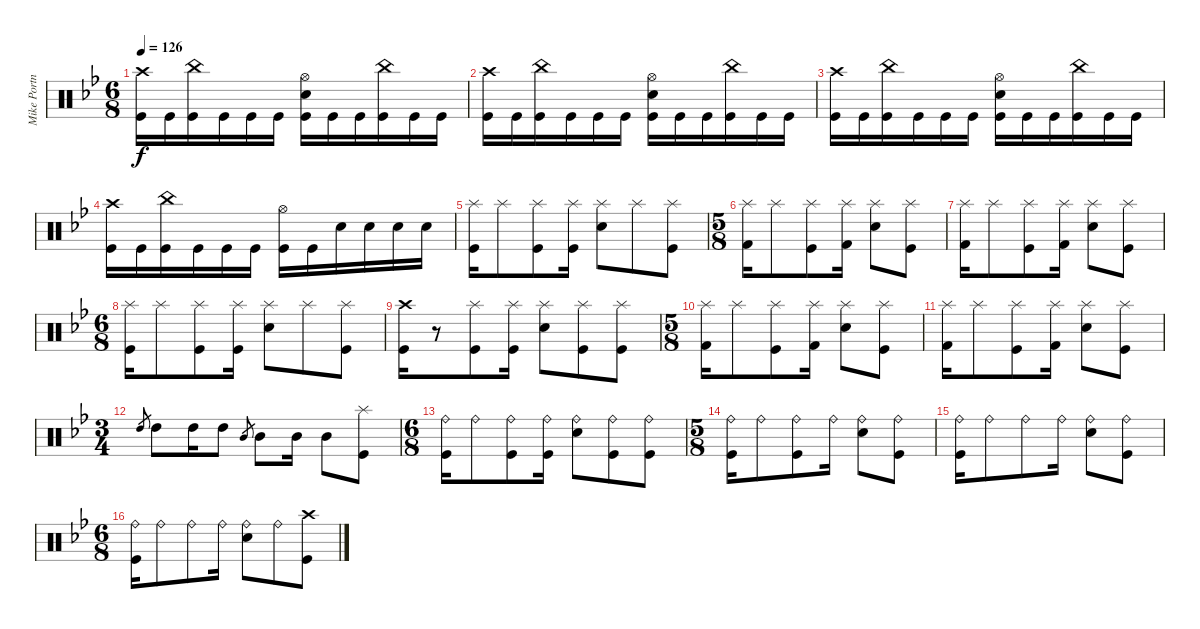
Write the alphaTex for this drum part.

\track ("Mike Portnoy - Drums" "Mike Portn") {instrument percussion}
\staff {score}
\articulation defaults
\ts (6 8)
\tempo 126
\clef neutral
\ks gminor
("Crash high (hit)" "Kick (hit)").16{dy f} "Kick (hit)".16 ("China (hit)" "Kick (hit)").16 "Kick (hit)".16 "Kick (hit)".16 "Kick (hit)".16 ("Hi-Hat (open)" "Snare (hit) 2" "Kick (hit)").16 "Kick (hit)".16 "Kick (hit)".16 ("China (hit)" "Kick (hit)").16 "Kick (hit)".16 "Kick (hit)".16 |
("Crash high (hit)" "Kick (hit)").16 "Kick (hit)".16 ("China (hit)" "Kick (hit)").16 "Kick (hit)".16 "Kick (hit)".16 "Kick (hit)".16 ("Hi-Hat (open)" "Snare (hit) 2" "Kick (hit)").16 "Kick (hit)".16 "Kick (hit)".16 ("China (hit)" "Kick (hit)").16 "Kick (hit)".16 "Kick (hit)".16 |
("Crash high (hit)" "Kick (hit)").16 "Kick (hit)".16 ("China (hit)" "Kick (hit)").16 "Kick (hit)".16 "Kick (hit)".16 "Kick (hit)".16 ("Hi-Hat (open)" "Snare (hit) 2" "Kick (hit)").16 "Kick (hit)".16 "Kick (hit)".16 ("China (hit)" "Kick (hit)").16 "Kick (hit)".16 "Kick (hit)".16 |
("Crash high (hit)" "Kick (hit)").16 "Kick (hit)".16 ("China (hit)" "Kick (hit)").16 "Kick (hit)".16 "Kick (hit)".16 "Kick (hit)".16 ("Hi-Hat (open)" "Kick (hit)").16 "Kick (hit)".16 "Snare (hit) 2".16 "Snare (hit) 2".16 "Snare (hit) 2".16 "Snare (hit) 2".16 |
("Splash (hit)" "Kick (hit)").16 "Splash (hit)".8 ("Splash (hit)" "Kick (hit)").8 ("Splash (hit)" "Kick (hit)").16 ("Splash (hit)" "Snare (hit) 2").8 "Splash (hit)".8 ("Splash (hit)" "Kick (hit)").8 |
\ts (5 8)
("Splash (hit)" "Kick (hit) 2").16 "Splash (hit)".8 ("Splash (hit)" "Kick (hit)").8 ("Splash (hit)" "Kick (hit) 2").16 ("Splash (hit)" "Snare (hit) 2").8 ("Splash (hit)" "Kick (hit)").8 |
("Splash (hit)" "Kick (hit) 2").16 "Splash (hit)".8 ("Splash (hit)" "Kick (hit)").8 ("Splash (hit)" "Kick (hit) 2").16 ("Splash (hit)" "Snare (hit) 2").8 ("Splash (hit)" "Kick (hit)").8 |
\ts (6 8)
("Splash (hit)" "Kick (hit)").16 "Splash (hit)".8 ("Splash (hit)" "Kick (hit)").8 ("Splash (hit)" "Kick (hit)").16 ("Splash (hit)" "Snare (hit) 2").8 "Splash (hit)".8 ("Splash (hit)" "Kick (hit)").8 |
("Crash high (hit)" "Kick (hit)").16 r.8 ("Splash (hit)" "Kick (hit)").8 ("Splash (hit)" "Kick (hit)").16 ("Splash (hit)" "Snare (hit) 2").8 ("Splash (hit)" "Kick (hit)").8 ("Splash (hit)" "Kick (hit)").8 |
\ts (5 8)
("Splash (hit)" "Kick (hit) 2").16 "Splash (hit)".8 ("Splash (hit)" "Kick (hit)").8 ("Splash (hit)" "Kick (hit) 2").16 ("Splash (hit)" "Snare (hit) 2").8 ("Splash (hit)" "Kick (hit)").8 |
("Splash (hit)" "Kick (hit) 2").16 "Splash (hit)".8 ("Splash (hit)" "Kick (hit)").8 ("Splash (hit)" "Kick (hit) 2").16 ("Splash (hit)" "Snare (hit) 2").8 ("Splash (hit)" "Kick (hit)").8 |
\ts (3 4)
"High Tom (hit)".8{gr} "High Tom (hit)".8 "High Tom (hit)".16 "High Tom (hit)".8 "Mid Tom (hit)".8{gr} "Mid Tom (hit)".8 "Mid Tom (hit)".16 "Mid Tom (hit)".8 ("Splash (hit)" "Kick (hit)").8 |
\ts (6 8)
("Ride (bell)" "Kick (hit)").16 "Ride (bell)".8 ("Ride (bell)" "Kick (hit)").8 ("Ride (bell)" "Kick (hit)").16 ("Ride (bell)" "Snare (hit) 2").8 ("Ride (bell)" "Kick (hit)").8 ("Ride (bell)" "Kick (hit)").8 |
\ts (5 8)
("Ride (bell)" "Kick (hit)").16 "Ride (bell)".8 ("Ride (bell)" "Kick (hit)").8 "Ride (bell)".16 ("Ride (bell)" "Snare (hit) 2").8 ("Ride (bell)" "Kick (hit)").8 |
("Ride (bell)" "Kick (hit)").16 "Ride (bell)".8 "Ride (bell)".8 "Ride (bell)".16 ("Ride (bell)" "Snare (hit) 2").8 ("Ride (bell)" "Kick (hit)").8 |
\ts (6 8)
("Ride (bell)" "Kick (hit)").16 "Ride (bell)".8 "Ride (bell)".8 "Ride (bell)".16 ("Ride (bell)" "Snare (hit) 2").8 "Ride (bell)".8 ("Crash high (hit)" "Kick (hit)").8
